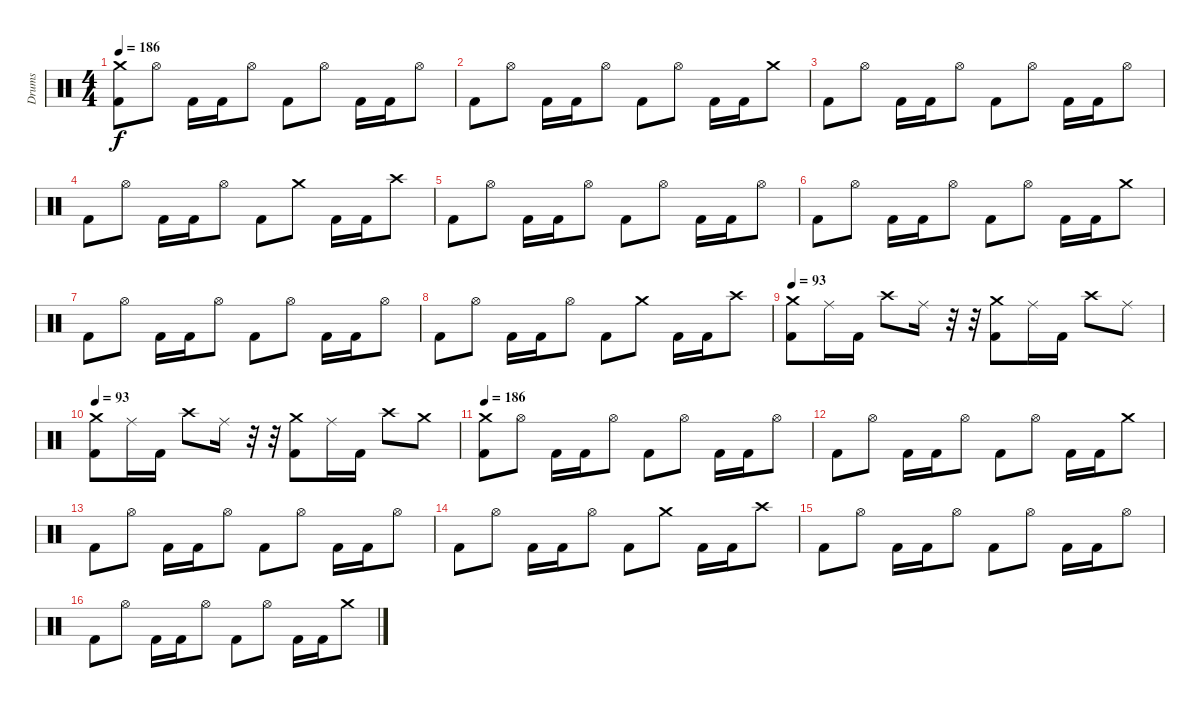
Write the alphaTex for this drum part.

\track ("Drums" "Drums") {instrument percussion}
\staff {score}
\articulation defaults
\ts (4 4)
\tempo 186
\clef neutral
\ks c
("Crash medium (hit)" "Kick (hit) 2").8{dy f} "Hi-Hat (open)".8 "Kick (hit) 2".16 "Kick (hit) 2".16 "Hi-Hat (open)".8 "Kick (hit) 2".8 "Hi-Hat (open)".8 "Kick (hit) 2".16 "Kick (hit) 2".16 "Hi-Hat (open)".8 |
"Kick (hit) 2".8 "Hi-Hat (open)".8 "Kick (hit) 2".16 "Kick (hit) 2".16 "Hi-Hat (open)".8 "Kick (hit) 2".8 "Hi-Hat (open)".8 "Kick (hit) 2".16 "Kick (hit) 2".16 "Crash medium (hit)".8 |
"Kick (hit) 2".8 "Hi-Hat (open)".8 "Kick (hit) 2".16 "Kick (hit) 2".16 "Hi-Hat (open)".8 "Kick (hit) 2".8 "Hi-Hat (open)".8 "Kick (hit) 2".16 "Kick (hit) 2".16 "Hi-Hat (open)".8 |
"Kick (hit) 2".8 "Hi-Hat (open)".8 "Kick (hit) 2".16 "Kick (hit) 2".16 "Hi-Hat (open)".8 "Kick (hit) 2".8 "Crash medium (hit)".8 "Kick (hit) 2".16 "Kick (hit) 2".16 "Crash high (hit)".8 |
"Kick (hit) 2".8 "Hi-Hat (open)".8 "Kick (hit) 2".16 "Kick (hit) 2".16 "Hi-Hat (open)".8 "Kick (hit) 2".8 "Hi-Hat (open)".8 "Kick (hit) 2".16 "Kick (hit) 2".16 "Hi-Hat (open)".8 |
"Kick (hit) 2".8 "Hi-Hat (open)".8 "Kick (hit) 2".16 "Kick (hit) 2".16 "Hi-Hat (open)".8 "Kick (hit) 2".8 "Hi-Hat (open)".8 "Kick (hit) 2".16 "Kick (hit) 2".16 "Crash medium (hit)".8 |
"Kick (hit) 2".8 "Hi-Hat (open)".8 "Kick (hit) 2".16 "Kick (hit) 2".16 "Hi-Hat (open)".8 "Kick (hit) 2".8 "Hi-Hat (open)".8 "Kick (hit) 2".16 "Kick (hit) 2".16 "Hi-Hat (open)".8 |
"Kick (hit) 2".8 "Hi-Hat (open)".8 "Kick (hit) 2".16 "Kick (hit) 2".16 "Hi-Hat (open)".8 "Kick (hit) 2".8 "Crash medium (hit)".8 "Kick (hit) 2".16 "Kick (hit) 2".16 "Crash high (hit)".8 |
\tempo 93
("Crash medium (hit)" "Kick (hit) 2").8 "Ride (middle)".16 "Kick (hit) 2".16 "Crash high (hit)".8 "Ride (middle)".16 r.32 r.32 ("Crash medium (hit)" "Kick (hit) 2").8 "Ride (middle)".16 "Kick (hit) 2".16 "Crash high (hit)".8 "Ride (middle)".8 |
\tempo 93
("Crash medium (hit)" "Kick (hit) 2").8 "Ride (middle)".16 "Kick (hit) 2".16 "Crash high (hit)".8 "Ride (middle)".16 r.32 r.32 ("Crash medium (hit)" "Kick (hit) 2").8 "Ride (middle)".16 "Kick (hit) 2".16 "Crash high (hit)".8 "Crash medium (hit)".8 |
\tempo 186
("Crash medium (hit)" "Kick (hit) 2").8 "Hi-Hat (open)".8 "Kick (hit) 2".16 "Kick (hit) 2".16 "Hi-Hat (open)".8 "Kick (hit) 2".8 "Hi-Hat (open)".8 "Kick (hit) 2".16 "Kick (hit) 2".16 "Hi-Hat (open)".8 |
"Kick (hit) 2".8 "Hi-Hat (open)".8 "Kick (hit) 2".16 "Kick (hit) 2".16 "Hi-Hat (open)".8 "Kick (hit) 2".8 "Hi-Hat (open)".8 "Kick (hit) 2".16 "Kick (hit) 2".16 "Crash medium (hit)".8 |
"Kick (hit) 2".8 "Hi-Hat (open)".8 "Kick (hit) 2".16 "Kick (hit) 2".16 "Hi-Hat (open)".8 "Kick (hit) 2".8 "Hi-Hat (open)".8 "Kick (hit) 2".16 "Kick (hit) 2".16 "Hi-Hat (open)".8 |
"Kick (hit) 2".8 "Hi-Hat (open)".8 "Kick (hit) 2".16 "Kick (hit) 2".16 "Hi-Hat (open)".8 "Kick (hit) 2".8 "Crash medium (hit)".8 "Kick (hit) 2".16 "Kick (hit) 2".16 "Crash high (hit)".8 |
"Kick (hit) 2".8 "Hi-Hat (open)".8 "Kick (hit) 2".16 "Kick (hit) 2".16 "Hi-Hat (open)".8 "Kick (hit) 2".8 "Hi-Hat (open)".8 "Kick (hit) 2".16 "Kick (hit) 2".16 "Hi-Hat (open)".8 |
"Kick (hit) 2".8 "Hi-Hat (open)".8 "Kick (hit) 2".16 "Kick (hit) 2".16 "Hi-Hat (open)".8 "Kick (hit) 2".8 "Hi-Hat (open)".8 "Kick (hit) 2".16 "Kick (hit) 2".16 "Crash medium (hit)".8
